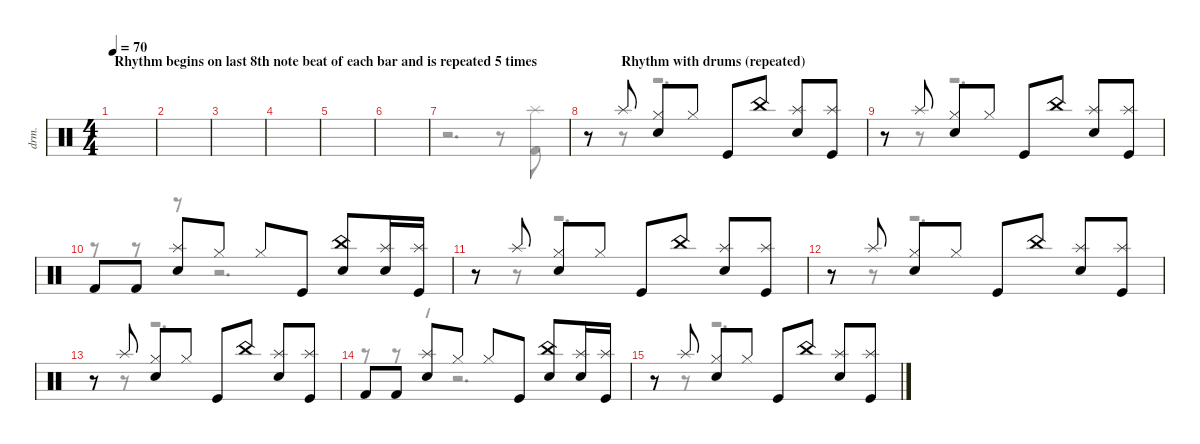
\defaultSystemsLayout 4
\hideDynamics
\bracketExtendMode nobrackets
\track ("Drumkit" "drm.") {instrument percussion}
\staff {score}
\articulation defaults
\voice
\ts (4 4)
\section ("" "Rhythm begins on last 8th note beat of each bar and is repeated 5 times")
\tempo 70
\clef neutral
\ks aminor
|
|
|
|
\section ("" "")
|
|
\section ("" "                                                   Rhythm with drums (repeated) ")
|
\section ("" "")
r.8{beam Up} "Splash (hit)".8{beam Up} ("Hi-Hat (closed)" "Snare (hit) 2").8{beam Up} "Hi-Hat (closed)".8{beam Up} "Kick (hit)".8{beam Up} "China (hit)".8{beam Up} ("Splash (hit)" "Snare (hit) 2").8{beam Up} ("Splash (hit)" "Kick (hit)").8{beam Up} |
r.8{beam Up} "Splash (hit)".8{beam Up} ("Hi-Hat (closed)" "Snare (hit) 2").8{beam Up} "Hi-Hat (closed)".8{beam Up} "Kick (hit)".8{beam Up} "China (hit)".8{beam Up} ("Splash (hit)" "Snare (hit) 2").8{beam Up} ("Splash (hit)" "Kick (hit)").8{beam Up} |
"Kick (hit) 2".8{beam Up} "Kick (hit) 2".8{beam Up} ("Splash (hit)" "Snare (hit) 2").8{beam Up} "Hi-Hat (closed)".8{beam Up} "Hi-Hat (closed)".8{beam Up} "Kick (hit)".8{beam Up} ("China (hit)" "Snare (hit) 2").8{beam Up} ("Splash (hit)" "Snare (hit) 2").16{beam Up} ("Splash (hit)" "Kick (hit)").16{beam Up} |
r.8{beam Up} "Splash (hit)".8{beam Up} ("Hi-Hat (closed)" "Snare (hit) 2").8{beam Up} "Hi-Hat (closed)".8{beam Up} "Kick (hit)".8{beam Up} "China (hit)".8{beam Up} ("Splash (hit)" "Snare (hit) 2").8{beam Up} ("Splash (hit)" "Kick (hit)").8{beam Up} |
r.8{beam Up} "Splash (hit)".8{beam Up} ("Hi-Hat (closed)" "Snare (hit) 2").8{beam Up} "Hi-Hat (closed)".8{beam Up} "Kick (hit)".8{beam Up} "China (hit)".8{beam Up} ("Splash (hit)" "Snare (hit) 2").8{beam Up} ("Splash (hit)" "Kick (hit)").8{beam Up} |
r.8{beam Up} "Splash (hit)".8{beam Up} ("Hi-Hat (closed)" "Snare (hit) 2").8{beam Up} "Hi-Hat (closed)".8{beam Up} "Kick (hit)".8{beam Up} "China (hit)".8{beam Up} ("Splash (hit)" "Snare (hit) 2").8{beam Up} ("Splash (hit)" "Kick (hit)").8{beam Up} |
"Kick (hit) 2".8{beam Up} "Kick (hit) 2".8{beam Up} ("Splash (hit)" "Snare (hit) 2").8{beam Up} "Hi-Hat (closed)".8{beam Up} "Hi-Hat (closed)".8{beam Up} "Kick (hit)".8{beam Up} ("China (hit)" "Snare (hit) 2").8{beam Up} ("Splash (hit)" "Snare (hit) 2").16{beam Up} ("Splash (hit)" "Kick (hit)").16{beam Up} |
r.8{beam Up} "Splash (hit)".8{beam Up} ("Hi-Hat (closed)" "Snare (hit) 2").8{beam Up} "Hi-Hat (closed)".8{beam Up} "Kick (hit)".8{beam Up} "China (hit)".8{beam Up} ("Splash (hit)" "Snare (hit) 2").8{beam Up} ("Splash (hit)" "Kick (hit)").8{beam Up}
\voice
\clef neutral
\ottava regular
\simile none
\ks aminor
|
|
|
|
|
|
r.2{d beam Down} r.8{beam Down} ("Kick (hit) 2" "Splash (hit)").8{beam Down} |
r.8{beam Down} r.8{beam Down} r.2{d beam Down} |
r.8{beam Down} r.8{beam Down} r.2{d beam Down} |
r.8{beam Down} r.8{beam Down} r.8{beam Down} r.2{d beam Down} |
r.8{beam Down} r.8{beam Down} r.2{d beam Down} |
r.8{beam Down} r.8{beam Down} r.2{d beam Down} |
r.8{beam Down} r.8{beam Down} r.2{d beam Down} |
r.8{beam Down} r.8{beam Down} r.8{beam Down} r.2{d beam Down} |
r.8{beam Down} r.8{beam Down} r.2{d beam Down}
